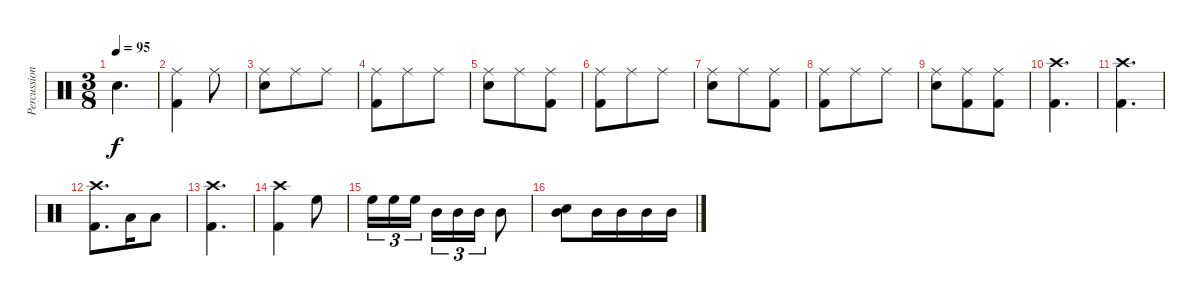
\track ("Percussion" "Percussion") {instrument percussion}
\staff {score}
\articulation defaults
\ts (3 8)
\tempo 95
\clef neutral
\ks c "Snare (hit)"{t}.4{d dy f}
|
("Ride (middle)" "Kick (hit) 2").4 "Ride (middle)".8 |
("Ride (middle)" "Snare (hit) 2").8 "Ride (middle)".8 "Ride (middle)".8 |
("Ride (middle)" "Kick (hit) 2").8 "Ride (middle)".8 "Ride (middle)".8 |
("Ride (middle)" "Snare (hit) 2").8 "Ride (middle)".8 ("Ride (middle)" "Kick (hit) 2").8 |
("Ride (middle)" "Kick (hit) 2").8 "Ride (middle)".8 "Ride (middle)".8 |
("Ride (middle)" "Snare (hit) 2").8 "Ride (middle)".8 ("Ride (middle)" "Kick (hit) 2").8 |
("Ride (middle)" "Kick (hit) 2").8 "Ride (middle)".8 "Ride (middle)".8 |
("Ride (middle)" "Snare (hit) 2").8 ("Ride (middle)" "Kick (hit) 2").8 ("Ride (middle)" "Kick (hit) 2").8 |
("Crash high (hit)" "Kick (hit) 2").4{d} |
("Crash high (hit)" "Kick (hit) 2").4{d} |
("Crash high (hit)" "Kick (hit) 2").8{d} "Low Floor Tom (hit)".16 "Low Floor Tom (hit)".8 |
("Crash high (hit)" "Kick (hit) 2").4{d} |
("Crash high (hit)" "Kick (hit) 2").4 "High Floor Tom (hit)".8 |
"High Floor Tom (hit)".16{tu (3 2)} "High Floor Tom (hit)".16{tu (3 2)} "High Floor Tom (hit)".16{tu (3 2)} "Mid Tom (hit)".16{tu (3 2)} "Mid Tom (hit)".16{tu (3 2)} "Mid Tom (hit)".16{tu (3 2)} "Mid Tom (hit)".8 |
("Snare (hit) 2" "Mid Tom (hit)").8 "Mid Tom (hit)".16 "Mid Tom (hit)".16 "Mid Tom (hit)".16 "Mid Tom (hit)".16
